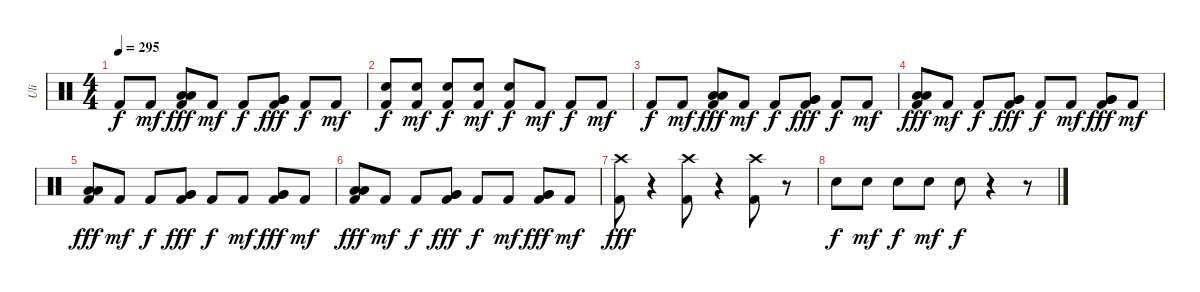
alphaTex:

\track ("Uli" "Uli") {instrument percussion}
\staff {score}
\articulation defaults
\ts (4 4)
\tempo 295
\clef neutral
\ks c "Kick (hit) 2".8{dy f} "Kick (hit) 2".8{dy mf volume 16}
("Low Tom (hit)" "Kick (hit) 2" "Low Tom (hit)").8{dy fff} "Kick (hit) 2".8{dy mf} "Kick (hit) 2".8{dy f} ("Very Low Tom (hit)" "Kick (hit) 2" "Very Low Tom (hit)").8{dy fff} "Kick (hit) 2".8{dy f} "Kick (hit) 2".8{dy mf} |
("Electric Snare (hit)" "Kick (hit) 2").8{dy f} ("Electric Snare (hit)" "Kick (hit) 2").8{dy mf volume 16} ("Electric Snare (hit)" "Kick (hit) 2").8{dy f} ("Electric Snare (hit)" "Kick (hit) 2").8{dy mf} ("Electric Snare (hit)" "Kick (hit) 2").8{dy f} "Kick (hit) 2".8{dy mf} "Kick (hit) 2".8{dy f} "Kick (hit) 2".8{dy mf} |
"Kick (hit) 2".8{dy f} "Kick (hit) 2".8{dy mf volume 16} ("Low Tom (hit)" "Kick (hit) 2" "Low Tom (hit)").8{dy fff} "Kick (hit) 2".8{dy mf} "Kick (hit) 2".8{dy f} ("Very Low Tom (hit)" "Kick (hit) 2" "Very Low Tom (hit)").8{dy fff} "Kick (hit) 2".8{dy f} "Kick (hit) 2".8{dy mf} |
("Low Tom (hit)" "Kick (hit) 2" "Low Tom (hit)").8{dy fff} "Kick (hit) 2".8{dy mf volume 16} "Kick (hit) 2".8{dy f} ("Very Low Tom (hit)" "Kick (hit) 2" "Very Low Tom (hit)").8{dy fff} "Kick (hit) 2".8{dy f} "Kick (hit) 2".8{dy mf} ("Very Low Tom (hit)" "Kick (hit) 2" "Very Low Tom (hit)").8{dy fff} "Kick (hit) 2".8{dy mf} |
("Low Tom (hit)" "Kick (hit) 2" "Low Tom (hit)").8{dy fff} "Kick (hit) 2".8{dy mf volume 16} "Kick (hit) 2".8{dy f} ("Very Low Tom (hit)" "Kick (hit) 2" "Very Low Tom (hit)").8{dy fff} "Kick (hit) 2".8{dy f} "Kick (hit) 2".8{dy mf} ("Very Low Tom (hit)" "Kick (hit) 2" "Very Low Tom (hit)").8{dy fff} "Kick (hit) 2".8{dy mf} |
("Low Tom (hit)" "Kick (hit) 2" "Low Tom (hit)").8{dy fff} "Kick (hit) 2".8{dy mf volume 16} "Kick (hit) 2".8{dy f} ("Very Low Tom (hit)" "Kick (hit) 2" "Very Low Tom (hit)").8{dy fff} "Kick (hit) 2".8{dy f} "Kick (hit) 2".8{dy mf} ("Very Low Tom (hit)" "Kick (hit) 2" "Very Low Tom (hit)").8{dy fff} "Kick (hit) 2".8{dy mf} |
("Crash high (hit)" "Kick (hit) 2").8{dy fff} r.4 ("Crash high (hit)" "Kick (hit) 2").8 r.4 ("Crash high (hit)" "Kick (hit) 2").8 r.8 |
"Electric Snare (hit)".8{dy f} "Electric Snare (hit)".8{dy mf} "Electric Snare (hit)".8{dy f} "Electric Snare (hit)".8{dy mf} "Electric Snare (hit)".8{dy f} r.4 r.8
